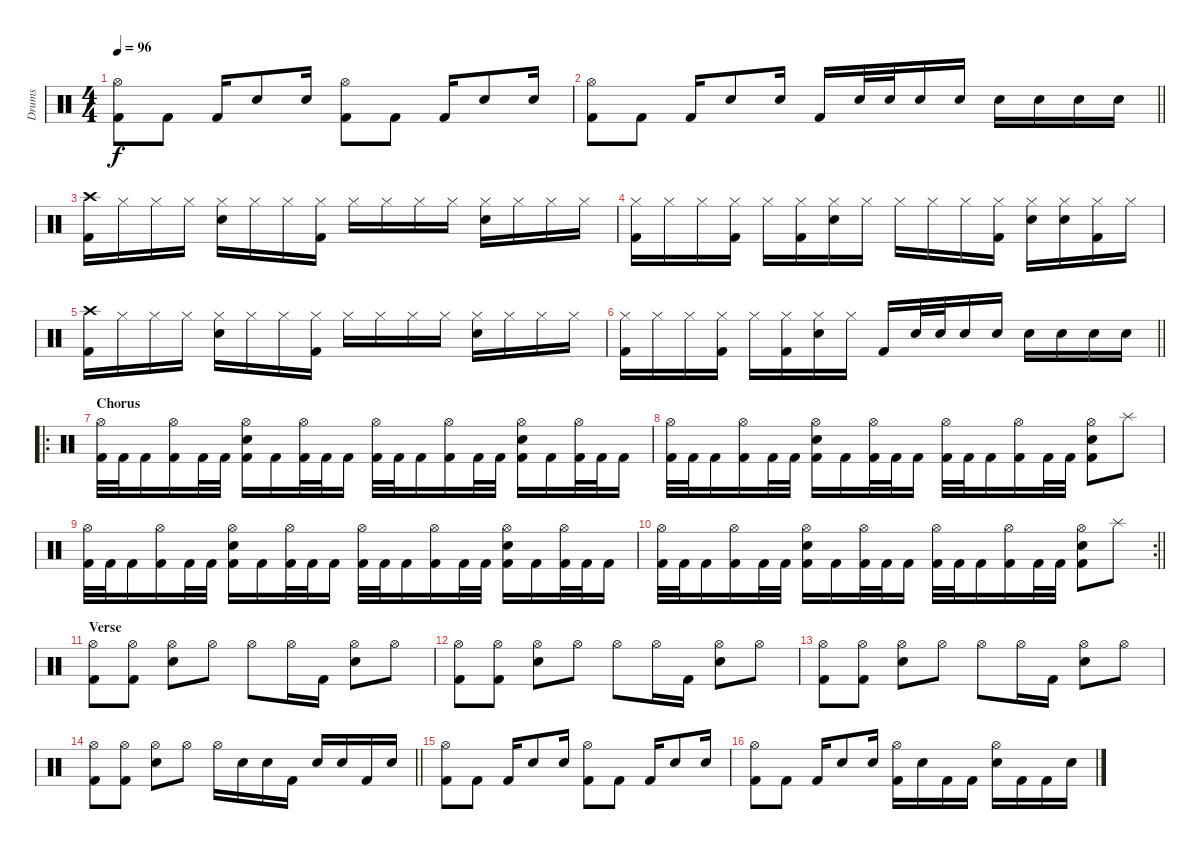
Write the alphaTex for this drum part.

\track ("Drums" "Drums") {instrument percussion}
\staff {score}
\articulation defaults
\ts (4 4)
\tempo 96
\clef neutral
\ks c
("Hi-Hat (open)" "Kick (hit) 2").8{dy f} "Kick (hit) 2".8 "Kick (hit) 2".16 "Electric Snare (hit)".8 "Snare (hit) 2".16 ("Hi-Hat (open)" "Kick (hit) 2").8 "Kick (hit) 2".8 "Kick (hit) 2".16 "Electric Snare (hit)".8 "Snare (hit) 2".16 |
\barLineRight lightlight
("Hi-Hat (open)" "Kick (hit) 2").8 "Kick (hit) 2".8 "Kick (hit) 2".16 "Electric Snare (hit)".8 "Snare (hit) 2".16 "Kick (hit) 2".16 "Electric Snare (hit)".32 "Electric Snare (hit)".32 "Electric Snare (hit)".16 "Electric Snare (hit)".16 "Snare (hit) 2".16 "Snare (hit) 2".16 "Snare (hit) 2".16 "Snare (hit) 2".16 |
\section ("" "")
("Crash high (hit)" "Kick (hit) 2").16 "Hi-Hat (closed)".16 "Hi-Hat (closed)".16 "Hi-Hat (closed)".16 ("Hi-Hat (closed)" "Electric Snare (hit)").16 "Hi-Hat (closed)".16 "Hi-Hat (closed)".16 ("Hi-Hat (closed)" "Kick (hit) 2").16 "Hi-Hat (closed)".16 "Hi-Hat (closed)".16 "Hi-Hat (closed)".16 "Hi-Hat (closed)".16 ("Hi-Hat (closed)" "Electric Snare (hit)").16 "Hi-Hat (closed)".16 "Hi-Hat (closed)".16 "Hi-Hat (closed)".16 |
("Hi-Hat (closed)" "Kick (hit) 2").16 "Hi-Hat (closed)".16 "Hi-Hat (closed)".16 ("Hi-Hat (closed)" "Kick (hit) 2").16 "Hi-Hat (closed)".16 ("Hi-Hat (closed)" "Kick (hit) 2").16 ("Hi-Hat (closed)" "Electric Snare (hit)").16 "Hi-Hat (closed)".16 "Hi-Hat (closed)".16 "Hi-Hat (closed)".16 "Hi-Hat (closed)".16 ("Hi-Hat (closed)" "Kick (hit) 2").16 ("Hi-Hat (closed)" "Electric Snare (hit)").16 ("Hi-Hat (closed)" "Snare (hit) 2").16 ("Hi-Hat (closed)" "Kick (hit) 2").16 "Hi-Hat (closed)".16 |
("Crash high (hit)" "Kick (hit) 2").16 "Hi-Hat (closed)".16 "Hi-Hat (closed)".16 "Hi-Hat (closed)".16 ("Hi-Hat (closed)" "Electric Snare (hit)").16 "Hi-Hat (closed)".16 "Hi-Hat (closed)".16 ("Hi-Hat (closed)" "Kick (hit) 2").16 "Hi-Hat (closed)".16 "Hi-Hat (closed)".16 "Hi-Hat (closed)".16 "Hi-Hat (closed)".16 ("Hi-Hat (closed)" "Electric Snare (hit)").16 "Hi-Hat (closed)".16 "Hi-Hat (closed)".16 "Hi-Hat (closed)".16 |
\barLineRight lightlight
("Hi-Hat (closed)" "Kick (hit) 2").16 "Hi-Hat (closed)".16 "Hi-Hat (closed)".16 ("Hi-Hat (closed)" "Kick (hit) 2").16 "Hi-Hat (closed)".16 ("Hi-Hat (closed)" "Kick (hit) 2").16 ("Hi-Hat (closed)" "Electric Snare (hit)").16 "Hi-Hat (closed)".16 "Kick (hit) 2".16 "Snare (hit) 2".32 "Snare (hit) 2".32 "Snare (hit) 2".16 "Snare (hit) 2".16 "Snare (hit) 2".16 "Snare (hit) 2".16 "Snare (hit) 2".16 "Snare (hit) 2".16 |
\ro
\section ("" "Chorus")
("Hi-Hat (open)" "Kick (hit) 2").32 "Kick (hit) 2".32 "Kick (hit) 2".16 ("Hi-Hat (open)" "Kick (hit) 2").16 "Kick (hit) 2".32 "Kick (hit) 2".32 ("Hi-Hat (open)" "Snare (hit) 2" "Kick (hit) 2").16 "Kick (hit) 2".16 ("Hi-Hat (open)" "Kick (hit) 2").32 "Kick (hit) 2".32 "Kick (hit) 2".16 ("Hi-Hat (open)" "Kick (hit) 2").32 "Kick (hit) 2".32 "Kick (hit) 2".16 ("Hi-Hat (open)" "Kick (hit) 2").16 "Kick (hit) 2".32 "Kick (hit) 2".32 ("Hi-Hat (open)" "Snare (hit) 2" "Kick (hit) 2").16 "Kick (hit) 2".16 ("Hi-Hat (open)" "Kick (hit) 2").32 "Kick (hit) 2".32 "Kick (hit) 2".16 |
("Hi-Hat (open)" "Kick (hit) 2").32 "Kick (hit) 2".32 "Kick (hit) 2".16 ("Hi-Hat (open)" "Kick (hit) 2").16 "Kick (hit) 2".32 "Kick (hit) 2".32 ("Hi-Hat (open)" "Snare (hit) 2" "Kick (hit) 2").16 "Kick (hit) 2".16 ("Hi-Hat (open)" "Kick (hit) 2").32 "Kick (hit) 2".32 "Kick (hit) 2".16 ("Hi-Hat (open)" "Kick (hit) 2").32 "Kick (hit) 2".32 "Kick (hit) 2".16 ("Hi-Hat (open)" "Kick (hit) 2").16 "Kick (hit) 2".32 "Kick (hit) 2".32 ("Hi-Hat (open)" "Snare (hit) 2" "Kick (hit) 2").8 "Splash (hit)".8 |
("Hi-Hat (open)" "Kick (hit) 2").32 "Kick (hit) 2".32 "Kick (hit) 2".16 ("Hi-Hat (open)" "Kick (hit) 2").16 "Kick (hit) 2".32 "Kick (hit) 2".32 ("Hi-Hat (open)" "Snare (hit) 2" "Kick (hit) 2").16 "Kick (hit) 2".16 ("Hi-Hat (open)" "Kick (hit) 2").32 "Kick (hit) 2".32 "Kick (hit) 2".16 ("Hi-Hat (open)" "Kick (hit) 2").32 "Kick (hit) 2".32 "Kick (hit) 2".16 ("Hi-Hat (open)" "Kick (hit) 2").16 "Kick (hit) 2".32 "Kick (hit) 2".32 ("Hi-Hat (open)" "Snare (hit) 2" "Kick (hit) 2").16 "Kick (hit) 2".16 ("Hi-Hat (open)" "Kick (hit) 2").32 "Kick (hit) 2".32 "Kick (hit) 2".16 |
\rc 2
\barLineRight lightlight
("Hi-Hat (open)" "Kick (hit) 2").32 "Kick (hit) 2".32 "Kick (hit) 2".16 ("Hi-Hat (open)" "Kick (hit) 2").16 "Kick (hit) 2".32 "Kick (hit) 2".32 ("Hi-Hat (open)" "Snare (hit) 2" "Kick (hit) 2").16 "Kick (hit) 2".16 ("Hi-Hat (open)" "Kick (hit) 2").32 "Kick (hit) 2".32 "Kick (hit) 2".16 ("Hi-Hat (open)" "Kick (hit) 2").32 "Kick (hit) 2".32 "Kick (hit) 2".16 ("Hi-Hat (open)" "Kick (hit) 2").16 "Kick (hit) 2".32 "Kick (hit) 2".32 ("Hi-Hat (open)" "Snare (hit) 2" "Kick (hit) 2").8 "Splash (hit)".8 |
\section ("" "Verse")
("Hi-Hat (open)" "Kick (hit) 2").8 ("Hi-Hat (open)" "Kick (hit) 2").8 ("Hi-Hat (open)" "Snare (hit) 2").8 "Hi-Hat (open)".8 "Hi-Hat (open)".8 "Hi-Hat (open)".16 "Kick (hit) 2".16 ("Hi-Hat (open)" "Snare (hit) 2").8 "Hi-Hat (open)".8 |
("Hi-Hat (open)" "Kick (hit) 2").8 ("Hi-Hat (open)" "Kick (hit) 2").8 ("Hi-Hat (open)" "Snare (hit) 2").8 "Hi-Hat (open)".8 "Hi-Hat (open)".8 "Hi-Hat (open)".16 "Kick (hit) 2".16 ("Hi-Hat (open)" "Snare (hit) 2").8 "Hi-Hat (open)".8 |
("Hi-Hat (open)" "Kick (hit) 2").8 ("Hi-Hat (open)" "Kick (hit) 2").8 ("Hi-Hat (open)" "Snare (hit) 2").8 "Hi-Hat (open)".8 "Hi-Hat (open)".8 "Hi-Hat (open)".16 "Kick (hit) 2".16 ("Hi-Hat (open)" "Snare (hit) 2").8 "Hi-Hat (open)".8 |
\barLineRight lightlight
("Hi-Hat (open)" "Kick (hit) 2").8 ("Hi-Hat (open)" "Kick (hit) 2").8 ("Hi-Hat (open)" "Snare (hit) 2").8 "Hi-Hat (open)".8 "Hi-Hat (open)".16 "Electric Snare (hit)".16 "Snare (hit) 2".16 "Kick (hit) 2".16 "Electric Snare (hit)".16 "Snare (hit) 2".16 "Kick (hit) 2".16 "Snare (hit) 2".16 |
\section ("" "")
("Hi-Hat (open)" "Kick (hit) 2").8 "Kick (hit) 2".8 "Kick (hit) 2".16 "Electric Snare (hit)".8 "Snare (hit) 2".16 ("Hi-Hat (open)" "Kick (hit) 2").8 "Kick (hit) 2".8 "Kick (hit) 2".16 "Electric Snare (hit)".8 "Snare (hit) 2".16 |
("Hi-Hat (open)" "Kick (hit) 2").8 "Kick (hit) 2".8 "Kick (hit) 2".16 "Electric Snare (hit)".8 "Snare (hit) 2".16 ("Hi-Hat (open)" "Kick (hit) 2").16 "Electric Snare (hit)".16 "Kick (hit) 2".16 "Kick (hit) 2".16 ("Hi-Hat (open)" "Snare (hit) 2").16 "Kick (hit) 2".16 "Kick (hit) 2".16 "Snare (hit) 2".16
